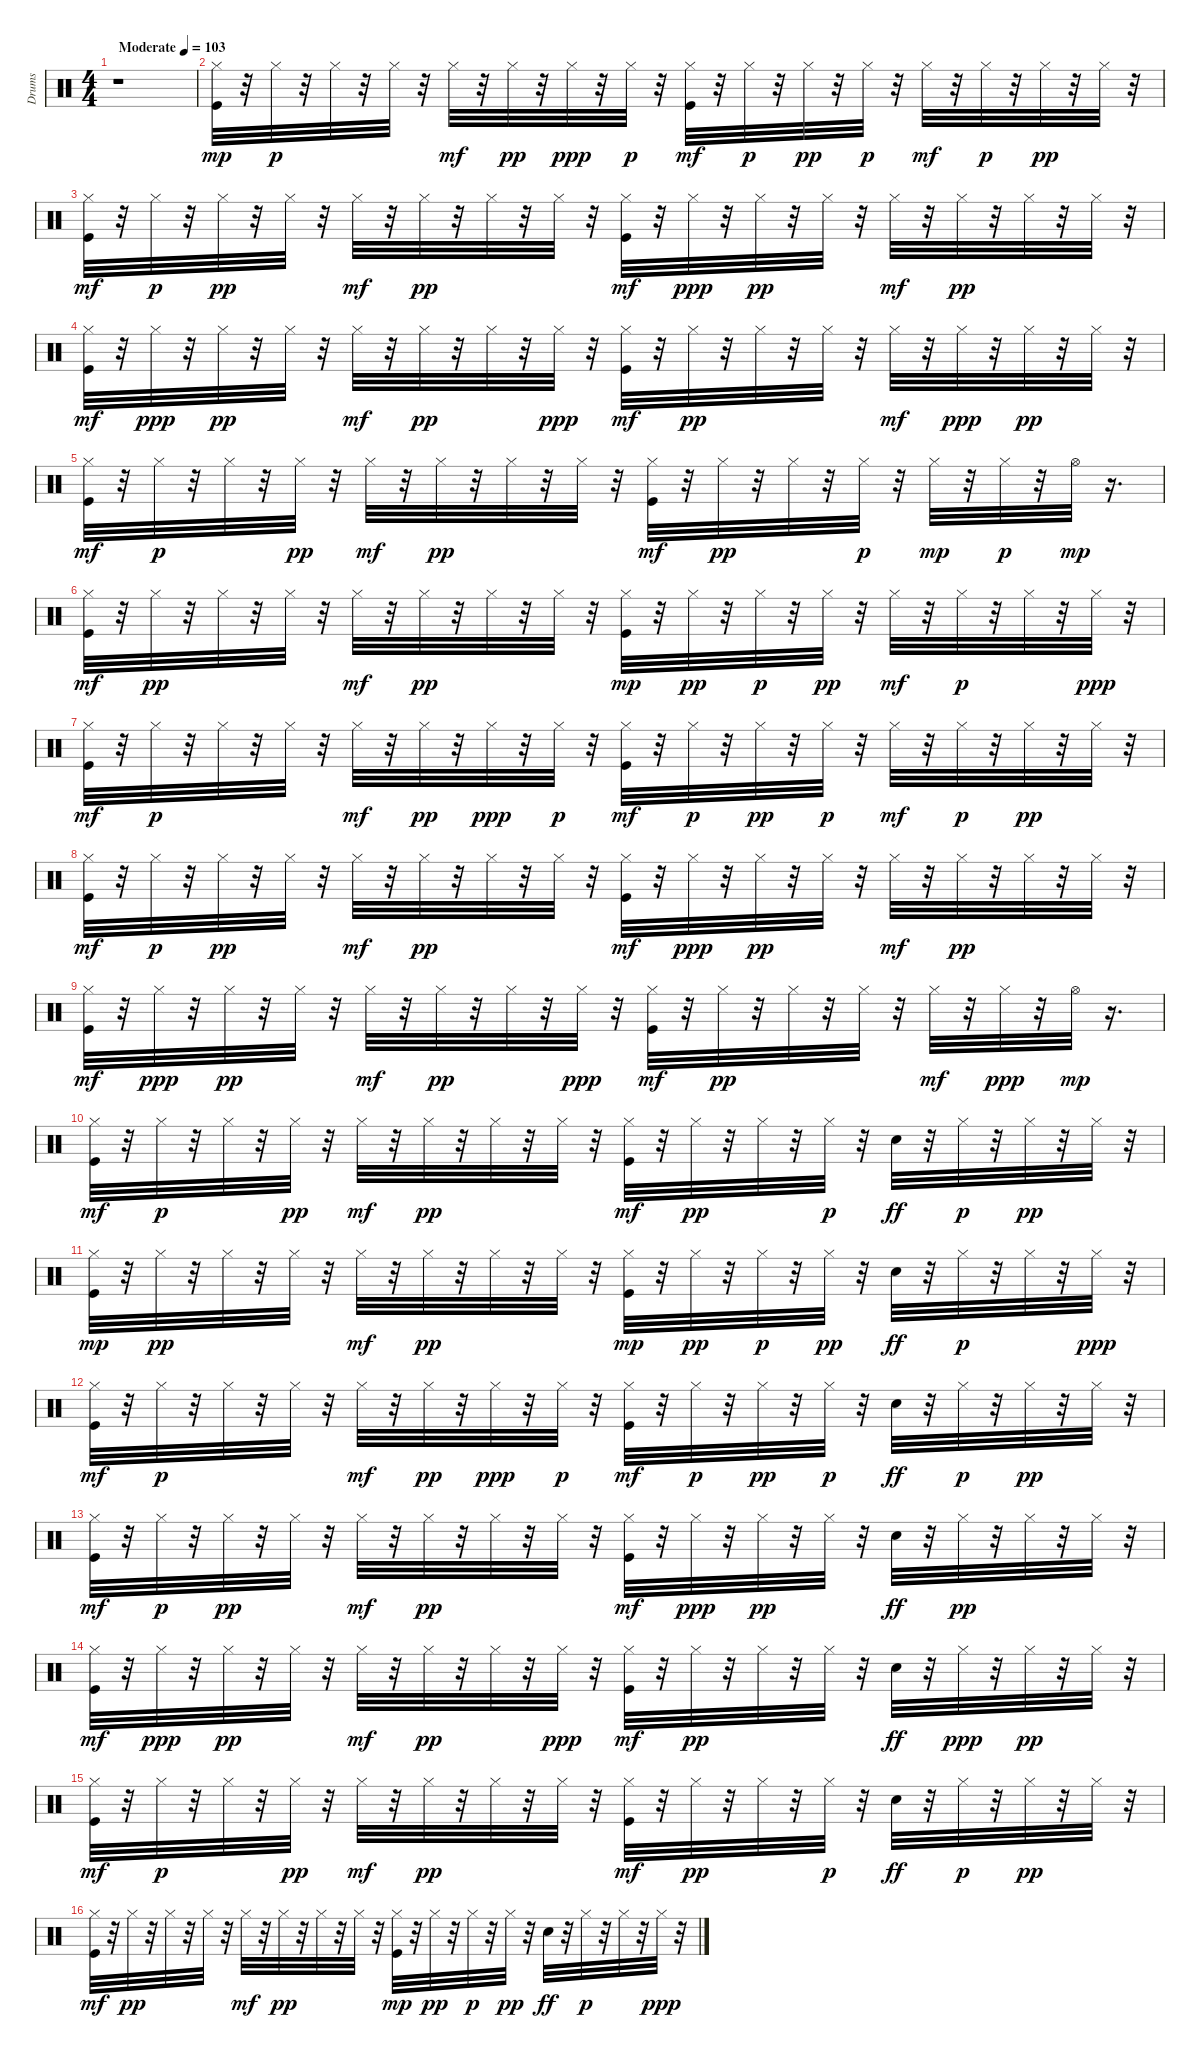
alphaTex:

\track ("Drums" "Drums") {instrument percussion}
\staff {score}
\articulation defaults
\ts (4 4)
\tempo (103 "Moderate")
\clef neutral
\ks c
r.1{dy mp} |
("Hi-Hat (closed)" "Kick (hit)").32 r.32 "Hi-Hat (closed)".32{dy p} r.32 "Hi-Hat (closed)".32 r.32 "Hi-Hat (closed)".32 r.32 "Hi-Hat (closed)".32{dy mf} r.32 "Hi-Hat (closed)".32{dy pp} r.32 "Hi-Hat (closed)".32{dy ppp} r.32 "Hi-Hat (closed)".32{dy p} r.32 ("Hi-Hat (closed)" "Kick (hit)").32{dy mf} r.32 "Hi-Hat (closed)".32{dy p} r.32 "Hi-Hat (closed)".32{dy pp} r.32 "Hi-Hat (closed)".32{dy p} r.32 "Hi-Hat (closed)".32{dy mf} r.32 "Hi-Hat (closed)".32{dy p} r.32 "Hi-Hat (closed)".32{dy pp} r.32 "Hi-Hat (closed)".32 r.32 |
("Hi-Hat (closed)" "Kick (hit)").32{dy mf} r.32 "Hi-Hat (closed)".32{dy p} r.32 "Hi-Hat (closed)".32{dy pp} r.32 "Hi-Hat (closed)".32 r.32 "Hi-Hat (closed)".32{dy mf} r.32 "Hi-Hat (closed)".32{dy pp} r.32 "Hi-Hat (closed)".32 r.32 "Hi-Hat (closed)".32 r.32 ("Hi-Hat (closed)" "Kick (hit)").32{dy mf} r.32 "Hi-Hat (closed)".32{dy ppp} r.32 "Hi-Hat (closed)".32{dy pp} r.32 "Hi-Hat (closed)".32 r.32 "Hi-Hat (closed)".32{dy mf} r.32 "Hi-Hat (closed)".32{dy pp} r.32 "Hi-Hat (closed)".32 r.32 "Hi-Hat (closed)".32 r.32 |
("Hi-Hat (closed)" "Kick (hit)").32{dy mf} r.32 "Hi-Hat (closed)".32{dy ppp} r.32 "Hi-Hat (closed)".32{dy pp} r.32 "Hi-Hat (closed)".32 r.32 "Hi-Hat (closed)".32{dy mf} r.32 "Hi-Hat (closed)".32{dy pp} r.32 "Hi-Hat (closed)".32 r.32 "Hi-Hat (closed)".32{dy ppp} r.32 ("Hi-Hat (closed)" "Kick (hit)").32{dy mf} r.32 "Hi-Hat (closed)".32{dy pp} r.32 "Hi-Hat (closed)".32 r.32 "Hi-Hat (closed)".32 r.32 "Hi-Hat (closed)".32{dy mf} r.32 "Hi-Hat (closed)".32{dy ppp} r.32 "Hi-Hat (closed)".32{dy pp} r.32 "Hi-Hat (closed)".32 r.32 |
("Hi-Hat (closed)" "Kick (hit)").32{dy mf} r.32 "Hi-Hat (closed)".32{dy p} r.32 "Hi-Hat (closed)".32 r.32 "Hi-Hat (closed)".32{dy pp} r.32 "Hi-Hat (closed)".32{dy mf} r.32 "Hi-Hat (closed)".32{dy pp} r.32 "Hi-Hat (closed)".32 r.32 "Hi-Hat (closed)".32 r.32 ("Hi-Hat (closed)" "Kick (hit)").32{dy mf} r.32 "Hi-Hat (closed)".32{dy pp} r.32 "Hi-Hat (closed)".32 r.32 "Hi-Hat (closed)".32{dy p} r.32 "Hi-Hat (closed)".32{dy mp} r.32 "Hi-Hat (closed)".32{dy p} r.32 "Hi-Hat (open)".32{dy mp} r.16{d} |
("Hi-Hat (closed)" "Kick (hit)").32{dy mf} r.32 "Hi-Hat (closed)".32{dy pp} r.32 "Hi-Hat (closed)".32 r.32 "Hi-Hat (closed)".32 r.32 "Hi-Hat (closed)".32{dy mf} r.32 "Hi-Hat (closed)".32{dy pp} r.32 "Hi-Hat (closed)".32 r.32 "Hi-Hat (closed)".32 r.32 ("Hi-Hat (closed)" "Kick (hit)").32{dy mp} r.32 "Hi-Hat (closed)".32{dy pp} r.32 "Hi-Hat (closed)".32{dy p} r.32 "Hi-Hat (closed)".32{dy pp} r.32 "Hi-Hat (closed)".32{dy mf} r.32 "Hi-Hat (closed)".32{dy p} r.32 "Hi-Hat (closed)".32 r.32 "Hi-Hat (closed)".32{dy ppp} r.32 |
("Hi-Hat (closed)" "Kick (hit)").32{dy mf} r.32 "Hi-Hat (closed)".32{dy p} r.32 "Hi-Hat (closed)".32 r.32 "Hi-Hat (closed)".32 r.32 "Hi-Hat (closed)".32{dy mf} r.32 "Hi-Hat (closed)".32{dy pp} r.32 "Hi-Hat (closed)".32{dy ppp} r.32 "Hi-Hat (closed)".32{dy p} r.32 ("Hi-Hat (closed)" "Kick (hit)").32{dy mf} r.32 "Hi-Hat (closed)".32{dy p} r.32 "Hi-Hat (closed)".32{dy pp} r.32 "Hi-Hat (closed)".32{dy p} r.32 "Hi-Hat (closed)".32{dy mf} r.32 "Hi-Hat (closed)".32{dy p} r.32 "Hi-Hat (closed)".32{dy pp} r.32 "Hi-Hat (closed)".32 r.32 |
("Hi-Hat (closed)" "Kick (hit)").32{dy mf} r.32 "Hi-Hat (closed)".32{dy p} r.32 "Hi-Hat (closed)".32{dy pp} r.32 "Hi-Hat (closed)".32 r.32 "Hi-Hat (closed)".32{dy mf} r.32 "Hi-Hat (closed)".32{dy pp} r.32 "Hi-Hat (closed)".32 r.32 "Hi-Hat (closed)".32 r.32 ("Hi-Hat (closed)" "Kick (hit)").32{dy mf} r.32 "Hi-Hat (closed)".32{dy ppp} r.32 "Hi-Hat (closed)".32{dy pp} r.32 "Hi-Hat (closed)".32 r.32 "Hi-Hat (closed)".32{dy mf} r.32 "Hi-Hat (closed)".32{dy pp} r.32 "Hi-Hat (closed)".32 r.32 "Hi-Hat (closed)".32 r.32 |
("Hi-Hat (closed)" "Kick (hit)").32{dy mf} r.32 "Hi-Hat (closed)".32{dy ppp} r.32 "Hi-Hat (closed)".32{dy pp} r.32 "Hi-Hat (closed)".32 r.32 "Hi-Hat (closed)".32{dy mf} r.32 "Hi-Hat (closed)".32{dy pp} r.32 "Hi-Hat (closed)".32 r.32 "Hi-Hat (closed)".32{dy ppp} r.32 ("Hi-Hat (closed)" "Kick (hit)").32{dy mf} r.32 "Hi-Hat (closed)".32{dy pp} r.32 "Hi-Hat (closed)".32 r.32 "Hi-Hat (closed)".32 r.32 "Hi-Hat (closed)".32{dy mf} r.32 "Hi-Hat (closed)".32{dy ppp} r.32 "Hi-Hat (open)".32{dy mp} r.16{d} |
("Hi-Hat (closed)" "Kick (hit)").32{dy mf} r.32 "Hi-Hat (closed)".32{dy p} r.32 "Hi-Hat (closed)".32 r.32 "Hi-Hat (closed)".32{dy pp} r.32 "Hi-Hat (closed)".32{dy mf} r.32 "Hi-Hat (closed)".32{dy pp} r.32 "Hi-Hat (closed)".32 r.32 "Hi-Hat (closed)".32 r.32 ("Kick (hit)" "Hi-Hat (closed)").32{dy mf} r.32 "Hi-Hat (closed)".32{dy pp} r.32 "Hi-Hat (closed)".32 r.32 "Hi-Hat (closed)".32{dy p} r.32 "Snare (hit) 2".32{dy ff} r.32 "Hi-Hat (closed)".32{dy p} r.32 "Hi-Hat (closed)".32{dy pp} r.32 "Hi-Hat (closed)".32 r.32 |
("Hi-Hat (closed)" "Kick (hit)").32{dy mp} r.32 "Hi-Hat (closed)".32{dy pp} r.32 "Hi-Hat (closed)".32 r.32 "Hi-Hat (closed)".32 r.32 "Hi-Hat (closed)".32{dy mf} r.32 "Hi-Hat (closed)".32{dy pp} r.32 "Hi-Hat (closed)".32 r.32 "Hi-Hat (closed)".32 r.32 ("Hi-Hat (closed)" "Kick (hit)").32{dy mp} r.32 "Hi-Hat (closed)".32{dy pp} r.32 "Hi-Hat (closed)".32{dy p} r.32 "Hi-Hat (closed)".32{dy pp} r.32 "Snare (hit) 2".32{dy ff} r.32 "Hi-Hat (closed)".32{dy p} r.32 "Hi-Hat (closed)".32 r.32 "Hi-Hat (closed)".32{dy ppp} r.32 |
("Kick (hit)" "Hi-Hat (closed)").32{dy mf} r.32 "Hi-Hat (closed)".32{dy p} r.32 "Hi-Hat (closed)".32 r.32 "Hi-Hat (closed)".32 r.32 "Hi-Hat (closed)".32{dy mf} r.32 "Hi-Hat (closed)".32{dy pp} r.32 "Hi-Hat (closed)".32{dy ppp} r.32 "Hi-Hat (closed)".32{dy p} r.32 ("Kick (hit)" "Hi-Hat (closed)").32{dy mf} r.32 "Hi-Hat (closed)".32{dy p} r.32 "Hi-Hat (closed)".32{dy pp} r.32 "Hi-Hat (closed)".32{dy p} r.32 "Snare (hit) 2".32{dy ff} r.32 "Hi-Hat (closed)".32{dy p} r.32 "Hi-Hat (closed)".32{dy pp} r.32 "Hi-Hat (closed)".32 r.32 |
("Hi-Hat (closed)" "Kick (hit)").32{dy mf} r.32 "Hi-Hat (closed)".32{dy p} r.32 "Hi-Hat (closed)".32{dy pp} r.32 "Hi-Hat (closed)".32 r.32 "Hi-Hat (closed)".32{dy mf} r.32 "Hi-Hat (closed)".32{dy pp} r.32 "Hi-Hat (closed)".32 r.32 "Hi-Hat (closed)".32 r.32 ("Hi-Hat (closed)" "Kick (hit)").32{dy mf} r.32 "Hi-Hat (closed)".32{dy ppp} r.32 "Hi-Hat (closed)".32{dy pp} r.32 "Hi-Hat (closed)".32 r.32 "Snare (hit) 2".32{dy ff} r.32 "Hi-Hat (closed)".32{dy pp} r.32 "Hi-Hat (closed)".32 r.32 "Hi-Hat (closed)".32 r.32 |
("Kick (hit)" "Hi-Hat (closed)").32{dy mf} r.32 "Hi-Hat (closed)".32{dy ppp} r.32 "Hi-Hat (closed)".32{dy pp} r.32 "Hi-Hat (closed)".32 r.32 "Hi-Hat (closed)".32{dy mf} r.32 "Hi-Hat (closed)".32{dy pp} r.32 "Hi-Hat (closed)".32 r.32 "Hi-Hat (closed)".32{dy ppp} r.32 ("Kick (hit)" "Hi-Hat (closed)").32{dy mf} r.32 "Hi-Hat (closed)".32{dy pp} r.32 "Hi-Hat (closed)".32 r.32 "Hi-Hat (closed)".32 r.32 "Snare (hit) 2".32{dy ff} r.32 "Hi-Hat (closed)".32{dy ppp} r.32 "Hi-Hat (closed)".32{dy pp} r.32 "Hi-Hat (closed)".32 r.32 |
("Hi-Hat (closed)" "Kick (hit)").32{dy mf} r.32 "Hi-Hat (closed)".32{dy p} r.32 "Hi-Hat (closed)".32 r.32 "Hi-Hat (closed)".32{dy pp} r.32 "Hi-Hat (closed)".32{dy mf} r.32 "Hi-Hat (closed)".32{dy pp} r.32 "Hi-Hat (closed)".32 r.32 "Hi-Hat (closed)".32 r.32 ("Hi-Hat (closed)" "Kick (hit)").32{dy mf} r.32 "Hi-Hat (closed)".32{dy pp} r.32 "Hi-Hat (closed)".32 r.32 "Hi-Hat (closed)".32{dy p} r.32 "Snare (hit) 2".32{dy ff} r.32 "Hi-Hat (closed)".32{dy p} r.32 "Hi-Hat (closed)".32{dy pp} r.32 "Hi-Hat (closed)".32 r.32 |
("Hi-Hat (closed)" "Kick (hit)").32{dy mf} r.32 "Hi-Hat (closed)".32{dy pp} r.32 "Hi-Hat (closed)".32 r.32 "Hi-Hat (closed)".32 r.32 "Hi-Hat (closed)".32{dy mf} r.32 "Hi-Hat (closed)".32{dy pp} r.32 "Hi-Hat (closed)".32 r.32 "Hi-Hat (closed)".32 r.32 ("Hi-Hat (closed)" "Kick (hit)").32{dy mp} r.32 "Hi-Hat (closed)".32{dy pp} r.32 "Hi-Hat (closed)".32{dy p} r.32 "Hi-Hat (closed)".32{dy pp} r.32 "Snare (hit) 2".32{dy ff} r.32 "Hi-Hat (closed)".32{dy p} r.32 "Hi-Hat (closed)".32 r.32 "Hi-Hat (closed)".32{dy ppp} r.32
